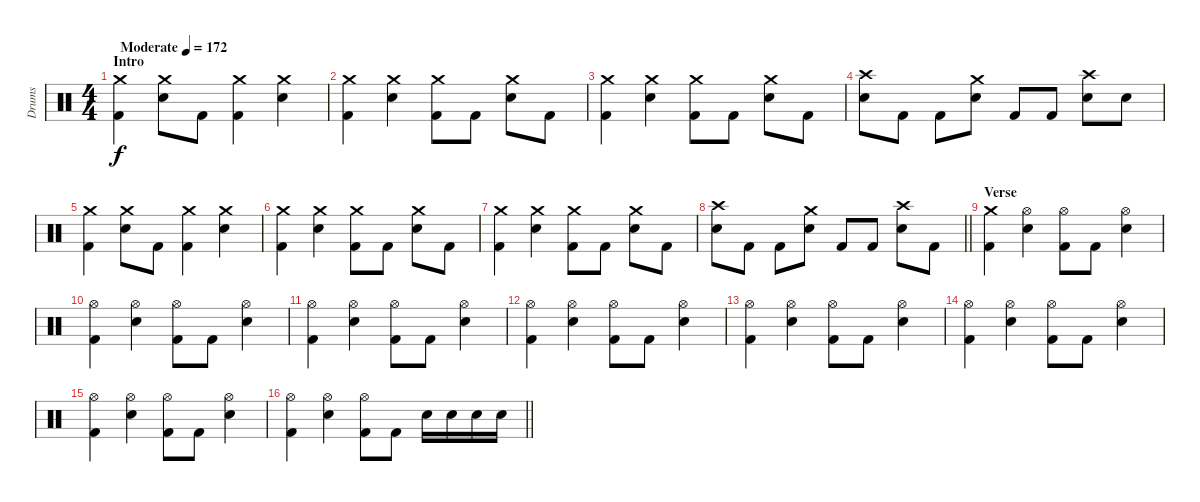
\track ("Drums" "Drums") {instrument percussion}
\staff {score}
\articulation defaults
\ts (4 4)
\section ("" "Intro")
\tempo (172 "Moderate")
\clef neutral
\ks c
("Crash medium (hit)" "Kick (hit) 2").4{dy f} ("Crash medium (hit)" "Electric Snare (hit)").8 "Kick (hit) 2".8 ("Crash medium (hit)" "Kick (hit) 2").4 ("Crash medium (hit)" "Electric Snare (hit)").4 |
("Crash medium (hit)" "Kick (hit) 2").4 ("Crash medium (hit)" "Electric Snare (hit)").4 ("Crash medium (hit)" "Kick (hit) 2").8 "Kick (hit) 2".8 ("Crash medium (hit)" "Electric Snare (hit)").8 "Kick (hit) 2".8 |
("Crash medium (hit)" "Kick (hit) 2").4 ("Crash medium (hit)" "Electric Snare (hit)").4 ("Crash medium (hit)" "Kick (hit) 2").8 "Kick (hit) 2".8 ("Crash medium (hit)" "Electric Snare (hit)").8 "Kick (hit) 2".8 |
("Crash high (hit)" "Electric Snare (hit)").8 "Kick (hit) 2".8 "Kick (hit) 2".8 ("Crash medium (hit)" "Electric Snare (hit)").8 "Kick (hit) 2".8 "Kick (hit) 2".8 ("Crash high (hit)" "Electric Snare (hit)").8 "Electric Snare (hit)".8 |
("Crash medium (hit)" "Kick (hit) 2").4 ("Crash medium (hit)" "Electric Snare (hit)").8 "Kick (hit) 2".8 ("Crash medium (hit)" "Kick (hit) 2").4 ("Crash medium (hit)" "Electric Snare (hit)").4 |
("Crash medium (hit)" "Kick (hit) 2").4 ("Crash medium (hit)" "Electric Snare (hit)").4 ("Crash medium (hit)" "Kick (hit) 2").8 "Kick (hit) 2".8 ("Crash medium (hit)" "Electric Snare (hit)").8 "Kick (hit) 2".8 |
("Crash medium (hit)" "Kick (hit) 2").4 ("Crash medium (hit)" "Electric Snare (hit)").4 ("Crash medium (hit)" "Kick (hit) 2").8 "Kick (hit) 2".8 ("Crash medium (hit)" "Electric Snare (hit)").8 "Kick (hit) 2".8 |
\barLineRight lightlight
("Crash high (hit)" "Electric Snare (hit)").8 "Kick (hit) 2".8 "Kick (hit) 2".8 ("Crash medium (hit)" "Electric Snare (hit)").8 "Kick (hit) 2".8 "Kick (hit) 2".8 ("Crash high (hit)" "Electric Snare (hit)").8 "Kick (hit) 2".8 |
\section ("" "Verse")
("Crash medium (hit)" "Kick (hit) 2").4 ("Hi-Hat (open)" "Electric Snare (hit)").4 ("Hi-Hat (open)" "Kick (hit) 2").8 "Kick (hit) 2".8 ("Hi-Hat (open)" "Electric Snare (hit)").4 |
("Hi-Hat (open)" "Kick (hit) 2").4 ("Hi-Hat (open)" "Electric Snare (hit)").4 ("Hi-Hat (open)" "Kick (hit) 2").8 "Kick (hit) 2".8 ("Hi-Hat (open)" "Electric Snare (hit)").4 |
("Hi-Hat (open)" "Kick (hit) 2").4 ("Hi-Hat (open)" "Electric Snare (hit)").4 ("Hi-Hat (open)" "Kick (hit) 2").8 "Kick (hit) 2".8 ("Hi-Hat (open)" "Electric Snare (hit)").4 |
("Hi-Hat (open)" "Kick (hit) 2").4 ("Hi-Hat (open)" "Electric Snare (hit)").4 ("Hi-Hat (open)" "Kick (hit) 2").8 "Kick (hit) 2".8 ("Hi-Hat (open)" "Electric Snare (hit)").4 |
("Hi-Hat (open)" "Kick (hit) 2").4 ("Hi-Hat (open)" "Electric Snare (hit)").4 ("Hi-Hat (open)" "Kick (hit) 2").8 "Kick (hit) 2".8 ("Hi-Hat (open)" "Electric Snare (hit)").4 |
("Hi-Hat (open)" "Kick (hit) 2").4 ("Hi-Hat (open)" "Electric Snare (hit)").4 ("Hi-Hat (open)" "Kick (hit) 2").8 "Kick (hit) 2".8 ("Hi-Hat (open)" "Electric Snare (hit)").4 |
("Hi-Hat (open)" "Kick (hit) 2").4 ("Hi-Hat (open)" "Electric Snare (hit)").4 ("Hi-Hat (open)" "Kick (hit) 2").8 "Kick (hit) 2".8 ("Hi-Hat (open)" "Electric Snare (hit)").4 |
\barLineRight lightlight
("Hi-Hat (open)" "Kick (hit) 2").4 ("Hi-Hat (open)" "Electric Snare (hit)").4 ("Hi-Hat (open)" "Kick (hit) 2").8 "Kick (hit) 2".8 "Electric Snare (hit)".16 "Electric Snare (hit)".16 "Electric Snare (hit)".16 "Electric Snare (hit)".16
